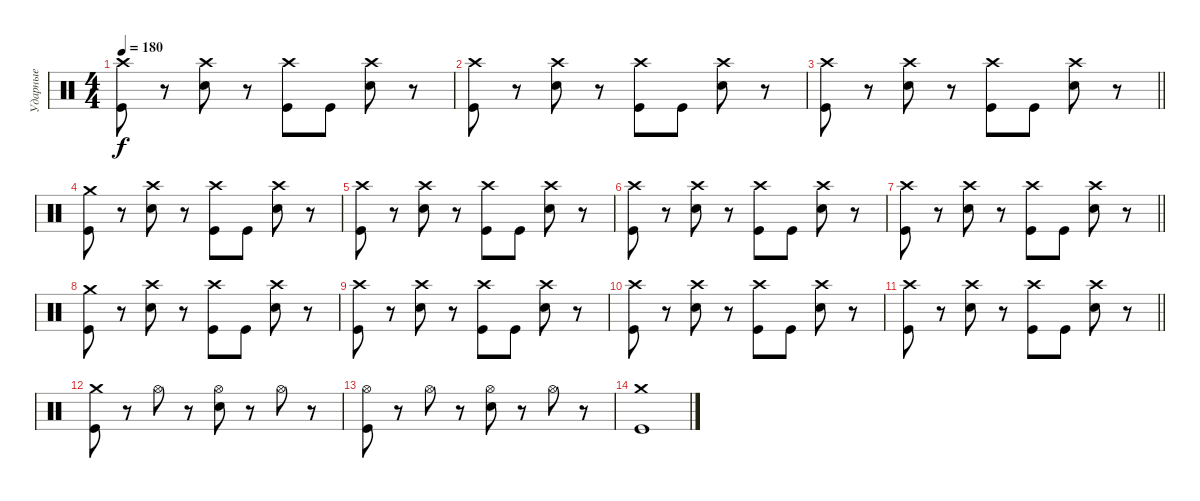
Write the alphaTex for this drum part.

\track ("Ударные" "Ударные") {instrument percussion}
\staff {score}
\articulation defaults
\ts (4 4)
\tempo 180
\clef neutral
\ks c
("Crash high (hit)" "Kick (hit)").8{dy f} r.8 ("Crash high (hit)" "Electric Snare (hit)").8 r.8 ("Crash high (hit)" "Kick (hit)").8 "Kick (hit)".8 ("Crash high (hit)" "Electric Snare (hit)").8 r.8 |
("Crash high (hit)" "Kick (hit)").8 r.8 ("Crash high (hit)" "Electric Snare (hit)").8 r.8 ("Crash high (hit)" "Kick (hit)").8 "Kick (hit)".8 ("Crash high (hit)" "Electric Snare (hit)").8 r.8 |
\barLineRight lightlight
("Crash high (hit)" "Kick (hit)").8 r.8 ("Crash high (hit)" "Electric Snare (hit)").8 r.8 ("Crash high (hit)" "Kick (hit)").8 "Kick (hit)".8 ("Crash high (hit)" "Electric Snare (hit)").8 r.8 |
("Crash medium (hit)" "Kick (hit)").8 r.8 ("Crash high (hit)" "Electric Snare (hit)").8 r.8 ("Crash high (hit)" "Kick (hit)").8 "Kick (hit)".8 ("Crash high (hit)" "Electric Snare (hit)").8 r.8 |
("Crash high (hit)" "Kick (hit)").8 r.8 ("Crash high (hit)" "Electric Snare (hit)").8 r.8 ("Crash high (hit)" "Kick (hit)").8 "Kick (hit)".8 ("Crash high (hit)" "Electric Snare (hit)").8 r.8 |
("Crash high (hit)" "Kick (hit)").8 r.8 ("Crash high (hit)" "Electric Snare (hit)").8 r.8 ("Crash high (hit)" "Kick (hit)").8 "Kick (hit)".8 ("Crash high (hit)" "Electric Snare (hit)").8 r.8 |
\barLineRight lightlight
("Crash high (hit)" "Kick (hit)").8 r.8 ("Crash high (hit)" "Electric Snare (hit)").8 r.8 ("Crash high (hit)" "Kick (hit)").8 "Kick (hit)".8 ("Crash high (hit)" "Electric Snare (hit)").8 r.8 |
("Crash medium (hit)" "Kick (hit)").8 r.8 ("Crash high (hit)" "Electric Snare (hit)").8 r.8 ("Crash high (hit)" "Kick (hit)").8 "Kick (hit)".8 ("Crash high (hit)" "Electric Snare (hit)").8 r.8 |
("Crash high (hit)" "Kick (hit)").8 r.8 ("Crash high (hit)" "Electric Snare (hit)").8 r.8 ("Crash high (hit)" "Kick (hit)").8 "Kick (hit)".8 ("Crash high (hit)" "Electric Snare (hit)").8 r.8 |
("Crash high (hit)" "Kick (hit)").8 r.8 ("Crash high (hit)" "Electric Snare (hit)").8 r.8 ("Crash high (hit)" "Kick (hit)").8 "Kick (hit)".8 ("Crash high (hit)" "Electric Snare (hit)").8 r.8 |
\barLineRight lightlight
("Crash high (hit)" "Kick (hit)").8 r.8 ("Crash high (hit)" "Electric Snare (hit)").8 r.8 ("Crash high (hit)" "Kick (hit)").8 "Kick (hit)".8 ("Crash high (hit)" "Electric Snare (hit)").8 r.8 |
\section ("" " ")
("Crash medium (hit)" "Kick (hit)").8 r.8 "Hi-Hat (open)".8 r.8 ("Hi-Hat (open)" "Electric Snare (hit)").8 r.8 "Hi-Hat (open)".8 r.8 |
("Hi-Hat (open)" "Kick (hit)").8 r.8 "Hi-Hat (open)".8 r.8 ("Hi-Hat (open)" "Electric Snare (hit)").8 r.8 "Hi-Hat (open)".8 r.8 |
("Crash medium (hit)" "Kick (hit)").1
